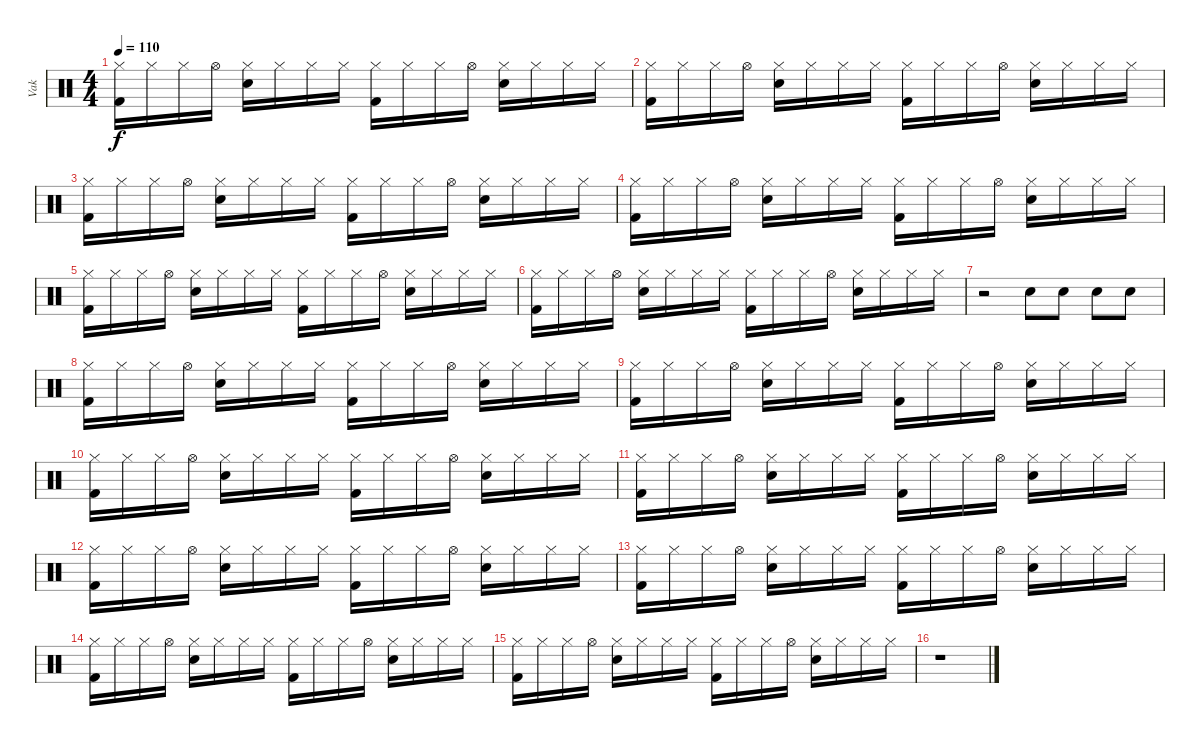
\track ("Vak" "Vak") {instrument percussion}
\staff {score}
\articulation defaults
\ts (4 4)
\tempo 110
\clef neutral
\ks c
("Hi-Hat (closed)" "Kick (hit) 2").16{dy f} "Hi-Hat (closed)".16 "Hi-Hat (closed)".16 "Hi-Hat (open)".16 ("Hi-Hat (closed)" "Snare (hit) 2").16 "Hi-Hat (closed)".16 "Hi-Hat (closed)".16 "Hi-Hat (closed)".16 ("Hi-Hat (closed)" "Kick (hit) 2").16 "Hi-Hat (closed)".16 "Hi-Hat (closed)".16 "Hi-Hat (open)".16 ("Hi-Hat (closed)" "Snare (hit) 2").16 "Hi-Hat (closed)".16 "Hi-Hat (closed)".16 "Hi-Hat (closed)".16 |
("Hi-Hat (closed)" "Kick (hit) 2").16 "Hi-Hat (closed)".16 "Hi-Hat (closed)".16 "Hi-Hat (open)".16 ("Hi-Hat (closed)" "Snare (hit) 2").16 "Hi-Hat (closed)".16 "Hi-Hat (closed)".16 "Hi-Hat (closed)".16 ("Hi-Hat (closed)" "Kick (hit) 2").16 "Hi-Hat (closed)".16 "Hi-Hat (closed)".16 "Hi-Hat (open)".16 ("Hi-Hat (closed)" "Snare (hit) 2").16 "Hi-Hat (closed)".16 "Hi-Hat (closed)".16 "Hi-Hat (closed)".16 |
("Hi-Hat (closed)" "Kick (hit) 2").16 "Hi-Hat (closed)".16 "Hi-Hat (closed)".16 "Hi-Hat (open)".16 ("Hi-Hat (closed)" "Snare (hit) 2").16 "Hi-Hat (closed)".16 "Hi-Hat (closed)".16 "Hi-Hat (closed)".16 ("Hi-Hat (closed)" "Kick (hit) 2").16 "Hi-Hat (closed)".16 "Hi-Hat (closed)".16 "Hi-Hat (open)".16 ("Hi-Hat (closed)" "Snare (hit) 2").16 "Hi-Hat (closed)".16 "Hi-Hat (closed)".16 "Hi-Hat (closed)".16 |
("Hi-Hat (closed)" "Kick (hit) 2").16 "Hi-Hat (closed)".16 "Hi-Hat (closed)".16 "Hi-Hat (open)".16 ("Hi-Hat (closed)" "Snare (hit) 2").16 "Hi-Hat (closed)".16 "Hi-Hat (closed)".16 "Hi-Hat (closed)".16 ("Hi-Hat (closed)" "Kick (hit) 2").16 "Hi-Hat (closed)".16 "Hi-Hat (closed)".16 "Hi-Hat (open)".16 ("Hi-Hat (closed)" "Snare (hit) 2").16 "Hi-Hat (closed)".16 "Hi-Hat (closed)".16 "Hi-Hat (closed)".16 |
("Hi-Hat (closed)" "Kick (hit) 2").16 "Hi-Hat (closed)".16 "Hi-Hat (closed)".16 "Hi-Hat (open)".16 ("Hi-Hat (closed)" "Snare (hit) 2").16 "Hi-Hat (closed)".16 "Hi-Hat (closed)".16 "Hi-Hat (closed)".16 ("Hi-Hat (closed)" "Kick (hit) 2").16 "Hi-Hat (closed)".16 "Hi-Hat (closed)".16 "Hi-Hat (open)".16 ("Hi-Hat (closed)" "Snare (hit) 2").16 "Hi-Hat (closed)".16 "Hi-Hat (closed)".16 "Hi-Hat (closed)".16 |
("Hi-Hat (closed)" "Kick (hit) 2").16 "Hi-Hat (closed)".16 "Hi-Hat (closed)".16 "Hi-Hat (open)".16 ("Hi-Hat (closed)" "Snare (hit) 2").16 "Hi-Hat (closed)".16 "Hi-Hat (closed)".16 "Hi-Hat (closed)".16 ("Hi-Hat (closed)" "Kick (hit) 2").16 "Hi-Hat (closed)".16 "Hi-Hat (closed)".16 "Hi-Hat (open)".16 ("Hi-Hat (closed)" "Snare (hit) 2").16 "Hi-Hat (closed)".16 "Hi-Hat (closed)".16 "Hi-Hat (closed)".16 |
r.2 "Snare (hit) 2".8 "Snare (hit) 2".8 "Snare (hit) 2".8 "Snare (hit) 2".8 |
("Hi-Hat (closed)" "Kick (hit) 2").16 "Hi-Hat (closed)".16 "Hi-Hat (closed)".16 "Hi-Hat (open)".16 ("Hi-Hat (closed)" "Snare (hit) 2").16 "Hi-Hat (closed)".16 "Hi-Hat (closed)".16 "Hi-Hat (closed)".16 ("Hi-Hat (closed)" "Kick (hit) 2").16 "Hi-Hat (closed)".16 "Hi-Hat (closed)".16 "Hi-Hat (open)".16 ("Hi-Hat (closed)" "Snare (hit) 2").16 "Hi-Hat (closed)".16 "Hi-Hat (closed)".16 "Hi-Hat (closed)".16 |
("Hi-Hat (closed)" "Kick (hit) 2").16 "Hi-Hat (closed)".16 "Hi-Hat (closed)".16 "Hi-Hat (open)".16 ("Hi-Hat (closed)" "Snare (hit) 2").16 "Hi-Hat (closed)".16 "Hi-Hat (closed)".16 "Hi-Hat (closed)".16 ("Hi-Hat (closed)" "Kick (hit) 2").16 "Hi-Hat (closed)".16 "Hi-Hat (closed)".16 "Hi-Hat (open)".16 ("Hi-Hat (closed)" "Snare (hit) 2").16 "Hi-Hat (closed)".16 "Hi-Hat (closed)".16 "Hi-Hat (closed)".16 |
("Hi-Hat (closed)" "Kick (hit) 2").16 "Hi-Hat (closed)".16 "Hi-Hat (closed)".16 "Hi-Hat (open)".16 ("Hi-Hat (closed)" "Snare (hit) 2").16 "Hi-Hat (closed)".16 "Hi-Hat (closed)".16 "Hi-Hat (closed)".16 ("Hi-Hat (closed)" "Kick (hit) 2").16 "Hi-Hat (closed)".16 "Hi-Hat (closed)".16 "Hi-Hat (open)".16 ("Hi-Hat (closed)" "Snare (hit) 2").16 "Hi-Hat (closed)".16 "Hi-Hat (closed)".16 "Hi-Hat (closed)".16 |
("Hi-Hat (closed)" "Kick (hit) 2").16 "Hi-Hat (closed)".16 "Hi-Hat (closed)".16 "Hi-Hat (open)".16 ("Hi-Hat (closed)" "Snare (hit) 2").16 "Hi-Hat (closed)".16 "Hi-Hat (closed)".16 "Hi-Hat (closed)".16 ("Hi-Hat (closed)" "Kick (hit) 2").16 "Hi-Hat (closed)".16 "Hi-Hat (closed)".16 "Hi-Hat (open)".16 ("Hi-Hat (closed)" "Snare (hit) 2").16 "Hi-Hat (closed)".16 "Hi-Hat (closed)".16 "Hi-Hat (closed)".16 |
("Hi-Hat (closed)" "Kick (hit) 2").16 "Hi-Hat (closed)".16 "Hi-Hat (closed)".16 "Hi-Hat (open)".16 ("Hi-Hat (closed)" "Snare (hit) 2").16 "Hi-Hat (closed)".16 "Hi-Hat (closed)".16 "Hi-Hat (closed)".16 ("Hi-Hat (closed)" "Kick (hit) 2").16 "Hi-Hat (closed)".16 "Hi-Hat (closed)".16 "Hi-Hat (open)".16 ("Hi-Hat (closed)" "Snare (hit) 2").16 "Hi-Hat (closed)".16 "Hi-Hat (closed)".16 "Hi-Hat (closed)".16 |
("Hi-Hat (closed)" "Kick (hit) 2").16 "Hi-Hat (closed)".16 "Hi-Hat (closed)".16 "Hi-Hat (open)".16 ("Hi-Hat (closed)" "Snare (hit) 2").16 "Hi-Hat (closed)".16 "Hi-Hat (closed)".16 "Hi-Hat (closed)".16 ("Hi-Hat (closed)" "Kick (hit) 2").16 "Hi-Hat (closed)".16 "Hi-Hat (closed)".16 "Hi-Hat (open)".16 ("Hi-Hat (closed)" "Snare (hit) 2").16 "Hi-Hat (closed)".16 "Hi-Hat (closed)".16 "Hi-Hat (closed)".16 |
("Hi-Hat (closed)" "Kick (hit) 2").16 "Hi-Hat (closed)".16 "Hi-Hat (closed)".16 "Hi-Hat (open)".16 ("Hi-Hat (closed)" "Snare (hit) 2").16 "Hi-Hat (closed)".16 "Hi-Hat (closed)".16 "Hi-Hat (closed)".16 ("Hi-Hat (closed)" "Kick (hit) 2").16 "Hi-Hat (closed)".16 "Hi-Hat (closed)".16 "Hi-Hat (open)".16 ("Hi-Hat (closed)" "Snare (hit) 2").16 "Hi-Hat (closed)".16 "Hi-Hat (closed)".16 "Hi-Hat (closed)".16 |
("Hi-Hat (closed)" "Kick (hit) 2").16 "Hi-Hat (closed)".16 "Hi-Hat (closed)".16 "Hi-Hat (open)".16 ("Hi-Hat (closed)" "Snare (hit) 2").16 "Hi-Hat (closed)".16 "Hi-Hat (closed)".16 "Hi-Hat (closed)".16 ("Hi-Hat (closed)" "Kick (hit) 2").16 "Hi-Hat (closed)".16 "Hi-Hat (closed)".16 "Hi-Hat (open)".16 ("Hi-Hat (closed)" "Snare (hit) 2").16 "Hi-Hat (closed)".16 "Hi-Hat (closed)".16 "Hi-Hat (closed)".16 |
r.1
